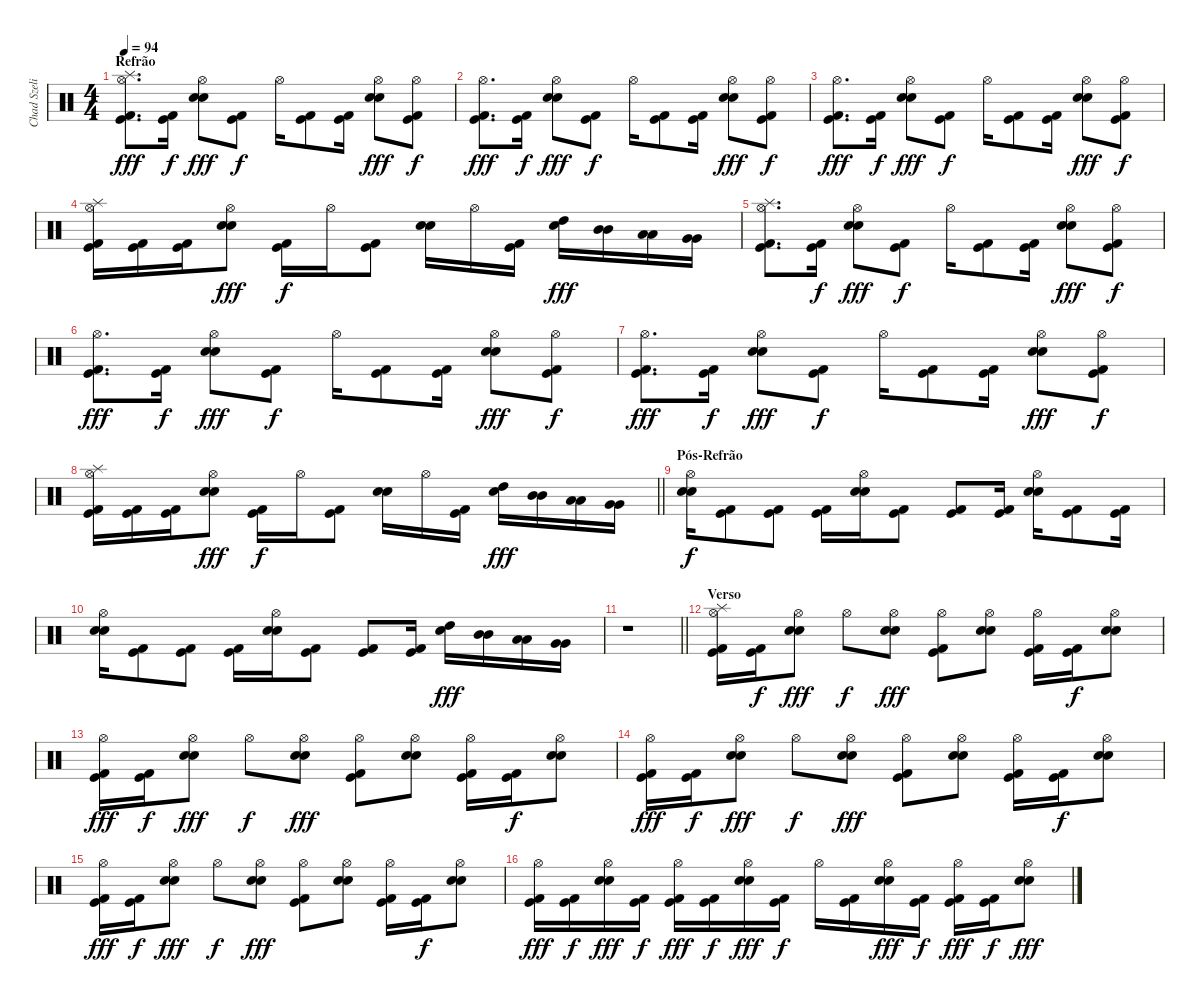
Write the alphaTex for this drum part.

\track ("Chad Szeliga" "Chad Szeli") {instrument percussion}
\staff {score}
\articulation defaults
\ts (4 4)
\section ("" "Refrão")
\tempo 94
\clef neutral
\ks c
("Splash (hit)" "Kick (hit) 2" "Kick (hit)" "Hi-Hat (open)").8{d dy fff} ("Kick (hit) 2" "Kick (hit)").16{dy f} ("Snare (hit) 2" "Snare (hit) 2" "Hi-Hat (open)").8{dy fff} ("Kick (hit) 2" "Kick (hit)").8{dy f} "Hi-Hat (open)".16 ("Kick (hit) 2" "Kick (hit)").8 ("Kick (hit) 2" "Kick (hit)").16 ("Snare (hit) 2" "Snare (hit) 2" "Hi-Hat (open)").8{dy fff} ("Kick (hit) 2" "Kick (hit)" "Hi-Hat (open)").8{dy f} |
("Kick (hit) 2" "Kick (hit)" "Hi-Hat (open)").8{d dy fff} ("Kick (hit) 2" "Kick (hit)").16{dy f} ("Snare (hit) 2" "Snare (hit) 2" "Hi-Hat (open)").8{dy fff} ("Kick (hit) 2" "Kick (hit)").8{dy f} "Hi-Hat (open)".16 ("Kick (hit) 2" "Kick (hit)").8 ("Kick (hit) 2" "Kick (hit)").16 ("Snare (hit) 2" "Snare (hit) 2" "Hi-Hat (open)").8{dy fff} ("Kick (hit) 2" "Kick (hit)" "Hi-Hat (open)").8{dy f} |
("Kick (hit) 2" "Kick (hit)" "Hi-Hat (open)").8{d dy fff} ("Kick (hit) 2" "Kick (hit)").16{dy f} ("Snare (hit) 2" "Snare (hit) 2" "Hi-Hat (open)").8{dy fff} ("Kick (hit) 2" "Kick (hit)").8{dy f} "Hi-Hat (open)".16 ("Kick (hit) 2" "Kick (hit)").8 ("Kick (hit) 2" "Kick (hit)").16 ("Snare (hit) 2" "Snare (hit) 2" "Hi-Hat (open)").8{dy fff} ("Kick (hit) 2" "Kick (hit)" "Hi-Hat (open)").8{dy f} |
("Splash (hit)" "Kick (hit) 2" "Kick (hit)" "Hi-Hat (open)").16 ("Kick (hit) 2" "Kick (hit)").16 ("Kick (hit) 2" "Kick (hit)").16 ("Snare (hit) 2" "Snare (hit) 2" "Hi-Hat (open)").8{dy fff} ("Kick (hit) 2" "Kick (hit)").16{dy f} "Hi-Hat (open)".16 ("Kick (hit) 2" "Kick (hit)").8 ("Snare (hit) 2" "Snare (hit) 2").16 "Hi-Hat (open)".16 ("Kick (hit) 2" "Kick (hit)").16 ("High Tom (hit)" "Snare (hit)").16{dy fff} ("Mid Tom (hit)" "Mid Tom (hit)").16 ("Low Tom (hit)" "Low Tom (hit)").16 ("Very Low Tom (hit)" "Very Low Tom (hit)").16 |
("Splash (hit)" "Kick (hit) 2" "Kick (hit)" "Hi-Hat (open)").8{d} ("Kick (hit) 2" "Kick (hit)").16{dy f} ("Snare (hit) 2" "Snare (hit) 2" "Hi-Hat (open)").8{dy fff} ("Kick (hit) 2" "Kick (hit)").8{dy f} "Hi-Hat (open)".16 ("Kick (hit) 2" "Kick (hit)").8 ("Kick (hit) 2" "Kick (hit)").16 ("Snare (hit) 2" "Snare (hit) 2" "Hi-Hat (open)").8{dy fff} ("Kick (hit) 2" "Kick (hit)" "Hi-Hat (open)").8{dy f} |
("Kick (hit) 2" "Kick (hit)" "Hi-Hat (open)").8{d dy fff} ("Kick (hit) 2" "Kick (hit)").16{dy f} ("Snare (hit) 2" "Snare (hit) 2" "Hi-Hat (open)").8{dy fff} ("Kick (hit) 2" "Kick (hit)").8{dy f} "Hi-Hat (open)".16 ("Kick (hit) 2" "Kick (hit)").8 ("Kick (hit) 2" "Kick (hit)").16 ("Snare (hit) 2" "Snare (hit) 2" "Hi-Hat (open)").8{dy fff} ("Kick (hit) 2" "Kick (hit)" "Hi-Hat (open)").8{dy f} |
("Kick (hit) 2" "Kick (hit)" "Hi-Hat (open)").8{d dy fff} ("Kick (hit) 2" "Kick (hit)").16{dy f} ("Snare (hit) 2" "Snare (hit) 2" "Hi-Hat (open)").8{dy fff} ("Kick (hit) 2" "Kick (hit)").8{dy f} "Hi-Hat (open)".16 ("Kick (hit) 2" "Kick (hit)").8 ("Kick (hit) 2" "Kick (hit)").16 ("Snare (hit) 2" "Snare (hit) 2" "Hi-Hat (open)").8{dy fff} ("Kick (hit) 2" "Kick (hit)" "Hi-Hat (open)").8{dy f} |
\barLineRight lightlight
("Splash (hit)" "Kick (hit) 2" "Kick (hit)" "Hi-Hat (open)").16 ("Kick (hit) 2" "Kick (hit)").16 ("Kick (hit) 2" "Kick (hit)").16 ("Snare (hit) 2" "Snare (hit) 2" "Hi-Hat (open)").8{dy fff} ("Kick (hit) 2" "Kick (hit)").16{dy f} "Hi-Hat (open)".16 ("Kick (hit) 2" "Kick (hit)").8 ("Snare (hit) 2" "Snare (hit) 2").16 "Hi-Hat (open)".16 ("Kick (hit) 2" "Kick (hit)").16 ("High Tom (hit)" "Snare (hit)").16{dy fff} ("Mid Tom (hit)" "Mid Tom (hit)").16 ("Low Tom (hit)" "Low Tom (hit)").16 ("Very Low Tom (hit)" "Very Low Tom (hit)").16 |
\section ("" "Pós-Refrão")
("Snare (hit) 2" "Snare (hit) 2" "Hi-Hat (open)").16{dy f} ("Kick (hit) 2" "Kick (hit)").8 ("Kick (hit) 2" "Kick (hit)").8 ("Kick (hit) 2" "Kick (hit)").16 ("Snare (hit) 2" "Snare (hit) 2" "Hi-Hat (open)").16 ("Kick (hit) 2" "Kick (hit)").8 ("Kick (hit) 2" "Kick (hit)").8 ("Kick (hit) 2" "Kick (hit)").16 ("Snare (hit) 2" "Snare (hit) 2" "Hi-Hat (open)").16 ("Kick (hit) 2" "Kick (hit)").8 ("Kick (hit) 2" "Kick (hit)").16 |
("Snare (hit) 2" "Snare (hit) 2" "Hi-Hat (open)").16 ("Kick (hit) 2" "Kick (hit)").8 ("Kick (hit) 2" "Kick (hit)").8 ("Kick (hit) 2" "Kick (hit)").16 ("Snare (hit) 2" "Snare (hit) 2" "Hi-Hat (open)").16 ("Kick (hit) 2" "Kick (hit)").8 ("Kick (hit) 2" "Kick (hit)").8 ("Kick (hit) 2" "Kick (hit)").16 ("High Tom (hit)" "Snare (hit)").16{dy fff} ("Mid Tom (hit)" "Mid Tom (hit)").16 ("Low Tom (hit)" "Low Tom (hit)").16 ("Very Low Tom (hit)" "Very Low Tom (hit)").16 |
\barLineRight lightlight
r.1 |
\section ("" "Verso")
("Splash (hit)" "Kick (hit) 2" "Kick (hit)" "Hi-Hat (open)").16 ("Kick (hit) 2" "Kick (hit)").16{dy f} ("Snare (hit) 2" "Snare (hit) 2" "Hi-Hat (open)").8{dy fff} "Hi-Hat (open)".8{dy f} ("Snare (hit) 2" "Snare (hit) 2" "Hi-Hat (open)").8{dy fff} ("Kick (hit) 2" "Kick (hit)" "Hi-Hat (open)").8 ("Snare (hit) 2" "Snare (hit) 2" "Hi-Hat (open)").8 ("Kick (hit) 2" "Kick (hit)" "Hi-Hat (open)").16 ("Kick (hit) 2" "Kick (hit)").16{dy f} ("Snare (hit) 2" "Snare (hit) 2" "Hi-Hat (open)").8 |
("Kick (hit) 2" "Kick (hit)" "Hi-Hat (open)").16{dy fff} ("Kick (hit) 2" "Kick (hit)").16{dy f} ("Snare (hit) 2" "Snare (hit) 2" "Hi-Hat (open)").8{dy fff} "Hi-Hat (open)".8{dy f} ("Snare (hit) 2" "Snare (hit) 2" "Hi-Hat (open)").8{dy fff} ("Kick (hit) 2" "Kick (hit)" "Hi-Hat (open)").8 ("Snare (hit) 2" "Snare (hit) 2" "Hi-Hat (open)").8 ("Kick (hit) 2" "Kick (hit)" "Hi-Hat (open)").16 ("Kick (hit) 2" "Kick (hit)").16{dy f} ("Snare (hit) 2" "Snare (hit) 2" "Hi-Hat (open)").8 |
("Kick (hit) 2" "Kick (hit)" "Hi-Hat (open)").16{dy fff} ("Kick (hit) 2" "Kick (hit)").16{dy f} ("Snare (hit) 2" "Snare (hit) 2" "Hi-Hat (open)").8{dy fff} "Hi-Hat (open)".8{dy f} ("Snare (hit) 2" "Snare (hit) 2" "Hi-Hat (open)").8{dy fff} ("Kick (hit) 2" "Kick (hit)" "Hi-Hat (open)").8 ("Snare (hit) 2" "Snare (hit) 2" "Hi-Hat (open)").8 ("Kick (hit) 2" "Kick (hit)" "Hi-Hat (open)").16 ("Kick (hit) 2" "Kick (hit)").16{dy f} ("Snare (hit) 2" "Snare (hit) 2" "Hi-Hat (open)").8 |
("Kick (hit) 2" "Kick (hit)" "Hi-Hat (open)").16{dy fff} ("Kick (hit) 2" "Kick (hit)").16{dy f} ("Snare (hit) 2" "Snare (hit) 2" "Hi-Hat (open)").8{dy fff} "Hi-Hat (open)".8{dy f} ("Snare (hit) 2" "Snare (hit) 2" "Hi-Hat (open)").8{dy fff} ("Kick (hit) 2" "Kick (hit)" "Hi-Hat (open)").8 ("Snare (hit) 2" "Snare (hit) 2" "Hi-Hat (open)").8 ("Kick (hit) 2" "Kick (hit)" "Hi-Hat (open)").16 ("Kick (hit) 2" "Kick (hit)").16{dy f} ("Snare (hit) 2" "Snare (hit) 2" "Hi-Hat (open)").8 |
("Kick (hit) 2" "Kick (hit)" "Hi-Hat (open)").16{dy fff} ("Kick (hit) 2" "Kick (hit)").16{dy f} ("Snare (hit) 2" "Snare (hit) 2" "Hi-Hat (open)").16{dy fff} ("Kick (hit) 2" "Kick (hit)").16{dy f} ("Kick (hit) 2" "Kick (hit)" "Hi-Hat (open)").16{dy fff} ("Kick (hit) 2" "Kick (hit)").16{dy f} ("Snare (hit) 2" "Snare (hit) 2" "Hi-Hat (open)").16{dy fff} ("Kick (hit) 2" "Kick (hit)").16{dy f} "Hi-Hat (open)".16 ("Kick (hit) 2" "Kick (hit)").16 ("Snare (hit) 2" "Snare (hit) 2" "Hi-Hat (open)").16{dy fff} ("Kick (hit) 2" "Kick (hit)").16{dy f} ("Kick (hit) 2" "Kick (hit)" "Hi-Hat (open)").16{dy fff} ("Kick (hit) 2" "Kick (hit)").16{dy f} ("Snare (hit) 2" "Snare (hit) 2" "Hi-Hat (open)").8{dy fff}
